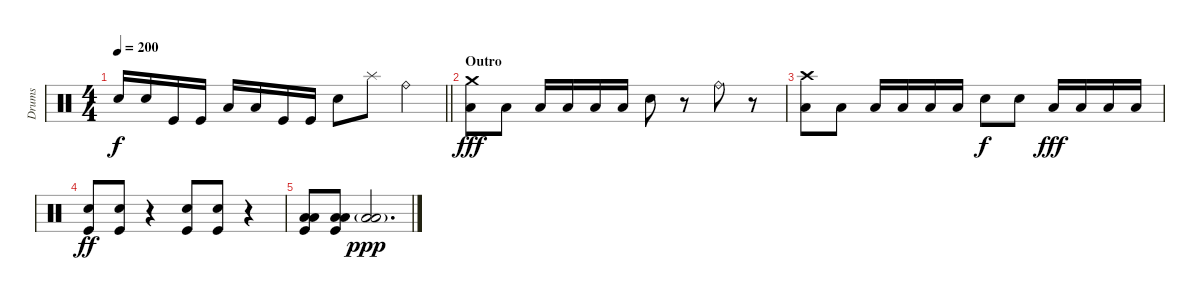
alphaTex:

\track ("Drums" "Drums") {instrument percussion}
\staff {score}
\articulation defaults
\ts (4 4)
\tempo 200
\clef neutral
\barLineRight lightlight
\ks c "Snare (hit) 2".16{dy f} "Snare (hit) 2".16 "Kick (hit)".16 "Kick (hit)".16 "Low Tom (hit)".16 "Low Tom (hit)".16 "Kick (hit)".16 "Kick (hit)".16 "Snare (hit) 2".8 "Splash (hit)".8 "Ride (bell)".4
|
\section ("" "Outro")
("Crash medium (hit)" "Low Floor Tom (hit)").8{dy fff} "Low Floor Tom (hit)".8 "Low Tom (hit)".16 "Low Tom (hit)".16 "Low Floor Tom (hit)".16 "Low Floor Tom (hit)".16 "Snare (hit) 2".8 r.8 "Ride (bell)".8 r.8 |
("Crash high (hit)" "Low Floor Tom (hit)").8 "Low Floor Tom (hit)".8 "Low Tom (hit)".16 "Low Tom (hit)".16 "Low Floor Tom (hit)".16 "Low Floor Tom (hit)".16 "Snare (hit) 2".8{dy f} "Snare (hit) 2".8 "Low Tom (hit)".16{dy fff} "Low Tom (hit)".16 "Low Floor Tom (hit)".16 "Low Floor Tom (hit)".16 |
("Snare (hit) 2" "Kick (hit)").8{dy ff} ("Snare (hit) 2" "Kick (hit)").8 r.4 ("Snare (hit) 2" "Kick (hit)").8 ("Snare (hit) 2" "Kick (hit)").8 r.4 |
("Low Tom (hit)" "Low Floor Tom (hit)" "Kick (hit)").8 ("Low Tom (hit)" "Low Floor Tom (hit)" "Kick (hit)").8 ("Low Tom (hit)"{g} "Low Floor Tom (hit)"{g}).2{d dy ppp}
